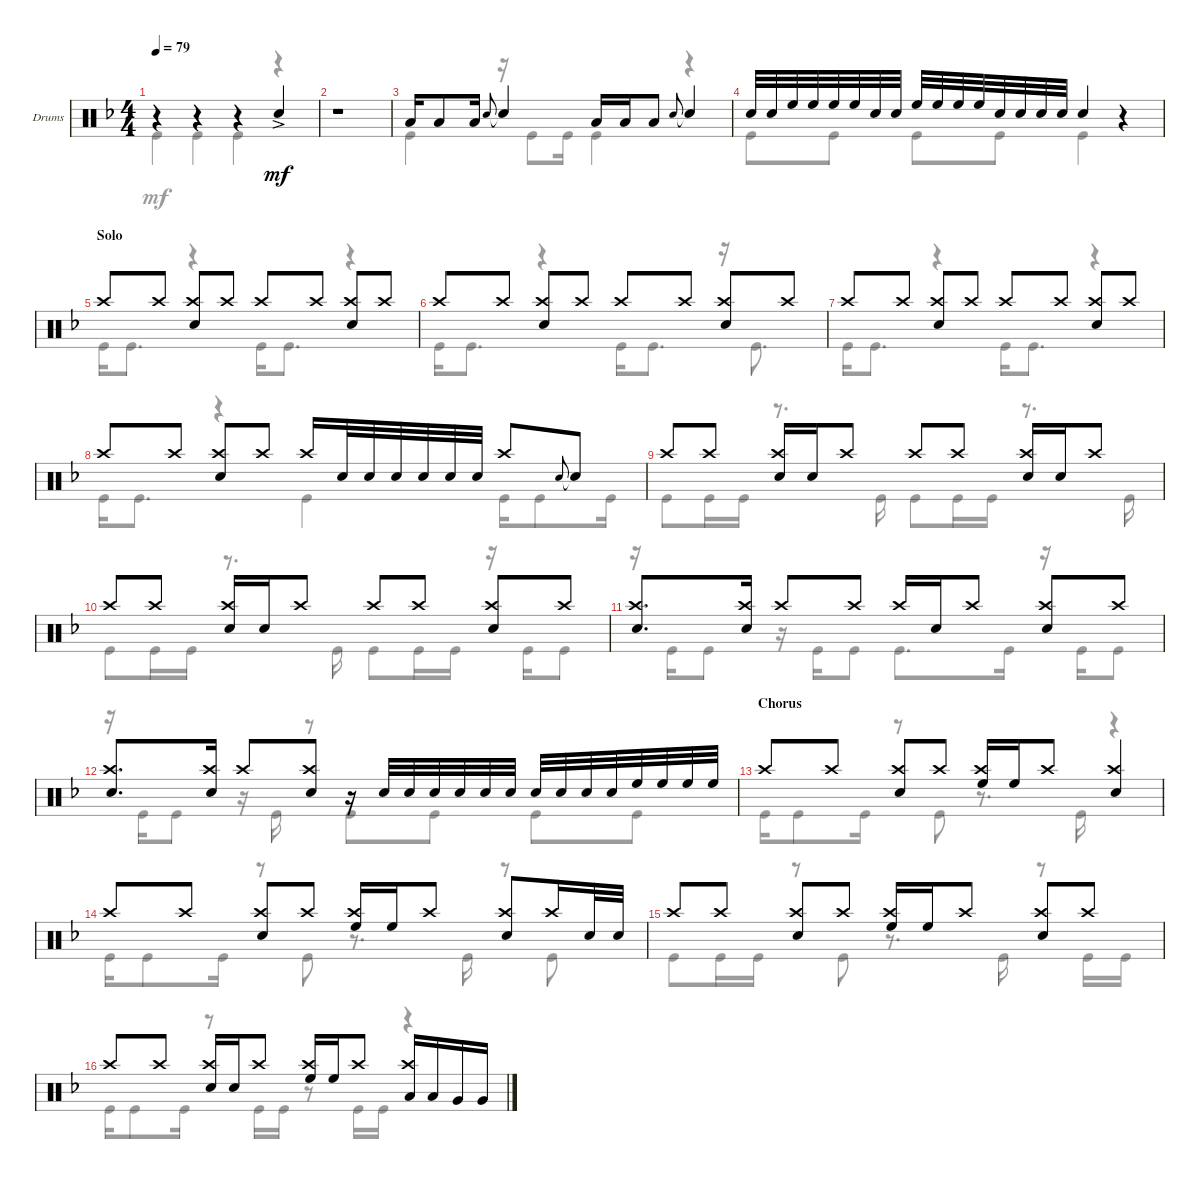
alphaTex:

\defaultSystemsLayout 4
\bracketExtendMode groupsimilarinstruments
\firstSystemTrackNameOrientation horizontal
\otherSystemsTrackNameOrientation horizontal
\track ("Drums" "Drums") {instrument percussion}
\staff {score}
\articulation defaults
\voice
\ts (4 4)
\tempo 79
\clef neutral
\scale
1.04161
\ks f
r.4{dy mf} r.4 r.4 "Snare (hit) 2"{ac}.4 |
\scale
0.958386 r.1 |
\scale
1.04161 "Low Tom (hit)".16 "Low Tom (hit)".8 "Low Tom (hit)".16 "Snare (hit) 2".8{gr onbeat} "Snare (hit) 2"{t}.4 "Low Tom (hit)".16 "Low Tom (hit)".16 "Low Tom (hit)".8 "Snare (hit) 2".8{gr onbeat} "Snare (hit) 2"{t}.4 |
\scale
0.958386 "Snare (hit) 2".32 "Snare (hit) 2".32 "High Floor Tom (hit)".32 "High Floor Tom (hit)".32 "High Floor Tom (hit)".32 "High Floor Tom (hit)".32 "Snare (hit) 2".32 "Snare (hit) 2".32 "High Floor Tom (hit)".32 "High Floor Tom (hit)".32 "High Floor Tom (hit)".32 "High Floor Tom (hit)".32 "Snare (hit) 2".32 "Snare (hit) 2".32 "Snare (hit) 2".32 "Snare (hit) 2".32 "Snare (hit) 2".4 r.4 |
\section ("" "Solo")
\scale
1.04161 "Crash high (hit)".8 "Crash high (hit)".8 ("Crash high (hit)" "Snare (hit) 2").8 "Crash high (hit)".8 "Crash high (hit)".8 "Crash high (hit)".8 ("Crash high (hit)" "Snare (hit) 2").8 "Crash high (hit)".8 |
\scale
0.958386 "Crash high (hit)".8 "Crash high (hit)".8 ("Crash high (hit)" "Snare (hit) 2").8 "Crash high (hit)".8 "Crash high (hit)".8 "Crash high (hit)".8 ("Crash high (hit)" "Snare (hit) 2").8 "Crash high (hit)".8 |
\scale
1.04161 "Crash high (hit)".8 "Crash high (hit)".8 ("Crash high (hit)" "Snare (hit) 2").8 "Crash high (hit)".8 "Crash high (hit)".8 "Crash high (hit)".8 ("Crash high (hit)" "Snare (hit) 2").8 "Crash high (hit)".8 |
\scale
0.958386 "Crash high (hit)".8 "Crash high (hit)".8 ("Crash high (hit)" "Snare (hit) 2").8 "Crash high (hit)".8 "Crash high (hit)".16 "Snare (hit) 2".32 "Snare (hit) 2".32 "Snare (hit) 2".32 "Snare (hit) 2".32 "Snare (hit) 2".32 "Snare (hit) 2".32 "Crash high (hit)".8 "Snare (hit) 2".8{gr onbeat} "Snare (hit) 2"{t}.8 |
\scale
1.04161 "Crash high (hit)".8 "Crash high (hit)".8 ("Crash high (hit)" "Snare (hit) 2").16 "Snare (hit) 2".16 "Crash high (hit)".8 "Crash high (hit)".8 "Crash high (hit)".8 ("Crash high (hit)" "Snare (hit) 2").16 "Snare (hit) 2".16 "Crash high (hit)".8 |
\scale
0.958386 "Crash high (hit)".8 "Crash high (hit)".8 ("Crash high (hit)" "Snare (hit) 2").16 "Snare (hit) 2".16 "Crash high (hit)".8 "Crash high (hit)".8 "Crash high (hit)".8 ("Crash high (hit)" "Snare (hit) 2").8 "Crash high (hit)".8 |
\scale
1.04161 ("Snare (hit) 2" "Crash high (hit)").8{d} ("Snare (hit) 2" "Crash high (hit)").16 "Crash high (hit)".8 "Crash high (hit)".8 "Crash high (hit)".16 "Snare (hit) 2".16 "Crash high (hit)".8 ("Crash high (hit)" "Snare (hit) 2").8 "Crash high (hit)".8 |
\scale
0.958386 ("Snare (hit) 2" "Crash high (hit)").8{d} ("Snare (hit) 2" "Crash high (hit)").16 "Crash high (hit)".8 ("Crash high (hit)" "Snare (hit) 2").8 r.16 "Snare (hit) 2".32 "Snare (hit) 2".32 "Snare (hit) 2".32 "Snare (hit) 2".32 "Snare (hit) 2".32 "Snare (hit) 2".32 "Snare (hit) 2".32 "Snare (hit) 2".32 "Snare (hit) 2".32 "Snare (hit) 2".32 "High Floor Tom (hit)".32 "High Floor Tom (hit)".32 "High Floor Tom (hit)".32 "High Floor Tom (hit)".32 |
\section ("" "Chorus")
\scale
1.04161 "Crash high (hit)".8 "Crash high (hit)".8 ("Snare (hit) 2" "Crash high (hit)").8 "Crash high (hit)".8 ("High Floor Tom (hit)" "Crash high (hit)").16 "High Floor Tom (hit)".16 "Crash high (hit)".8 ("Snare (hit) 2" "Crash high (hit)").4 |
\scale
0.958386 "Crash high (hit)".8 "Crash high (hit)".8 ("Snare (hit) 2" "Crash high (hit)").8 "Crash high (hit)".8 ("High Floor Tom (hit)" "Crash high (hit)").16 "High Floor Tom (hit)".16 "Crash high (hit)".8 ("Snare (hit) 2" "Crash high (hit)").8 "Crash high (hit)".16 "Snare (hit) 2".32 "Snare (hit) 2".32 |
\scale
1.04161 "Crash high (hit)".8 "Crash high (hit)".8 ("Snare (hit) 2" "Crash high (hit)").8 "Crash high (hit)".8 ("High Floor Tom (hit)" "Crash high (hit)").16 "High Floor Tom (hit)".16 "Crash high (hit)".8 ("Snare (hit) 2" "Crash high (hit)").8 "Crash high (hit)".8 |
\scale
0.958386 "Crash high (hit)".8 "Crash high (hit)".8 ("Snare (hit) 2" "Crash high (hit)").16 "Snare (hit) 2".16 "Crash high (hit)".8 ("High Floor Tom (hit)" "Crash high (hit)").16 "High Floor Tom (hit)".16 "Crash high (hit)".8 ("Low Tom (hit)" "Crash high (hit)").16 "Low Tom (hit)".16 "Very Low Tom (hit)".16 "Very Low Tom (hit)".16
\voice
\clef neutral
\ottava regular
\simile none
\scale
1.04161
\ks f "Kick (hit)".4{dy mf} "Kick (hit)".4 "Kick (hit)".4
r.4 |
\scale
0.958386 |
\scale
1.04161 "Kick (hit)".4 r.16 "Kick (hit)".8 "Kick (hit)".16 "Kick (hit)".4 r.4 |
\scale
0.958386 "Kick (hit)".8 "Kick (hit)".8 "Kick (hit)".8 "Kick (hit)".8 "Kick (hit)".4 r.4 |
\scale
1.04161 "Kick (hit)".16 "Kick (hit)".8{d} r.4 "Kick (hit)".16 "Kick (hit)".8{d} r.4 |
\scale
0.958386 "Kick (hit)".16 "Kick (hit)".8{d} r.4 "Kick (hit)".16 "Kick (hit)".8{d} r.16 "Kick (hit)".8{d} |
\scale
1.04161 "Kick (hit)".16 "Kick (hit)".8{d} r.4 "Kick (hit)".16 "Kick (hit)".8{d} r.4 |
\scale
0.958386 "Kick (hit)".16 "Kick (hit)".8{d} r.4 "Kick (hit)".4 "Kick (hit)".16 "Kick (hit)".8 "Kick (hit)".16 |
\scale
1.04161 "Kick (hit)".8 "Kick (hit)".16 "Kick (hit)".16 r.8{d} "Kick (hit)".16 "Kick (hit)".8 "Kick (hit)".16 "Kick (hit)".16 r.8{d} "Kick (hit)".16 |
\scale
0.958386 "Kick (hit)".8 "Kick (hit)".16 "Kick (hit)".16 r.8{d} "Kick (hit)".16 "Kick (hit)".8 "Kick (hit)".16 "Kick (hit)".16 r.16 "Kick (hit)".16 "Kick (hit)".8 |
\scale
1.04161 r.16 "Kick (hit)".16 "Kick (hit)".8 r.16 "Kick (hit)".16 "Kick (hit)".8 "Kick (hit)".8{d} "Kick (hit)".16 r.16 "Kick (hit)".16 "Kick (hit)".8 |
\scale
0.958386 r.16 "Kick (hit)".16 "Kick (hit)".8 r.16 "Kick (hit)".16 r.8 "Kick (hit)".8 "Kick (hit)".8 "Kick (hit)".8 "Kick (hit)".8 |
\scale
1.04161 "Kick (hit)".16 "Kick (hit)".8 "Kick (hit)".16 r.8 "Kick (hit)".8 r.8{d} "Kick (hit)".16 r.4 |
\scale
0.958386 "Kick (hit)".16 "Kick (hit)".8 "Kick (hit)".16 r.8 "Kick (hit)".8 r.8{d} "Kick (hit)".16 r.8 "Kick (hit)".8 |
\scale
1.04161 "Kick (hit)".8 "Kick (hit)".16 "Kick (hit)".16 r.8 "Kick (hit)".8 r.8{d} "Kick (hit)".16 r.8 "Kick (hit)".16 "Kick (hit)".16 |
\scale
0.958386 "Kick (hit)".16 "Kick (hit)".8 "Kick (hit)".16 r.8 "Kick (hit)".16 "Kick (hit)".16 r.8 "Kick (hit)".16 "Kick (hit)".16 r.4
